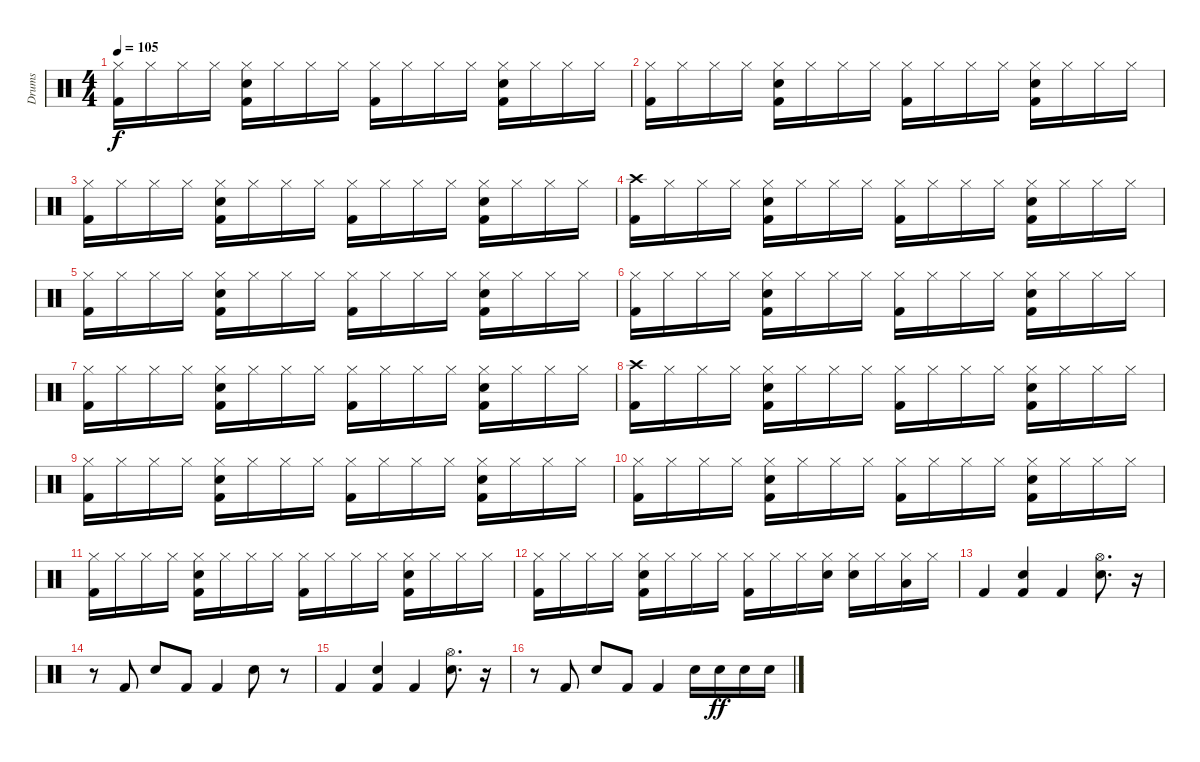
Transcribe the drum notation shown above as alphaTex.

\track ("Drums" "Drums") {instrument percussion}
\staff {score}
\articulation defaults
\ts (4 4)
\tempo 105
\clef neutral
\ks c
("Kick (hit) 2" "Hi-Hat (closed)").16{dy f} "Hi-Hat (closed)".16 "Hi-Hat (closed)".16 "Hi-Hat (closed)".16 ("Kick (hit) 2" "Snare (hit) 2" "Hi-Hat (closed)").16 "Hi-Hat (closed)".16 "Hi-Hat (closed)".16 "Hi-Hat (closed)".16 ("Kick (hit) 2" "Hi-Hat (closed)").16 "Hi-Hat (closed)".16 "Hi-Hat (closed)".16 "Hi-Hat (closed)".16 ("Kick (hit) 2" "Snare (hit) 2" "Hi-Hat (closed)").16 "Hi-Hat (closed)".16 "Hi-Hat (closed)".16 "Hi-Hat (closed)".16 |
("Kick (hit) 2" "Hi-Hat (closed)").16 "Hi-Hat (closed)".16 "Hi-Hat (closed)".16 "Hi-Hat (closed)".16 ("Kick (hit) 2" "Snare (hit) 2" "Hi-Hat (closed)").16 "Hi-Hat (closed)".16 "Hi-Hat (closed)".16 "Hi-Hat (closed)".16 ("Kick (hit) 2" "Hi-Hat (closed)").16 "Hi-Hat (closed)".16 "Hi-Hat (closed)".16 "Hi-Hat (closed)".16 ("Kick (hit) 2" "Snare (hit) 2" "Hi-Hat (closed)").16 "Hi-Hat (closed)".16 "Hi-Hat (closed)".16 "Hi-Hat (closed)".16 |
("Kick (hit) 2" "Hi-Hat (closed)").16 "Hi-Hat (closed)".16 "Hi-Hat (closed)".16 "Hi-Hat (closed)".16 ("Kick (hit) 2" "Snare (hit) 2" "Hi-Hat (closed)").16 "Hi-Hat (closed)".16 "Hi-Hat (closed)".16 "Hi-Hat (closed)".16 ("Kick (hit) 2" "Hi-Hat (closed)").16 "Hi-Hat (closed)".16 "Hi-Hat (closed)".16 "Hi-Hat (closed)".16 ("Kick (hit) 2" "Snare (hit) 2" "Hi-Hat (closed)").16 "Hi-Hat (closed)".16 "Hi-Hat (closed)".16 "Hi-Hat (closed)".16 |
("Kick (hit) 2" "Crash high (hit)").16 "Hi-Hat (closed)".16 "Hi-Hat (closed)".16 "Hi-Hat (closed)".16 ("Kick (hit) 2" "Snare (hit) 2" "Hi-Hat (closed)").16 "Hi-Hat (closed)".16 "Hi-Hat (closed)".16 "Hi-Hat (closed)".16 ("Kick (hit) 2" "Hi-Hat (closed)").16 "Hi-Hat (closed)".16 "Hi-Hat (closed)".16 "Hi-Hat (closed)".16 ("Kick (hit) 2" "Snare (hit) 2" "Hi-Hat (closed)").16 "Hi-Hat (closed)".16 "Hi-Hat (closed)".16 "Hi-Hat (closed)".16 |
("Kick (hit) 2" "Hi-Hat (closed)").16 "Hi-Hat (closed)".16 "Hi-Hat (closed)".16 "Hi-Hat (closed)".16 ("Kick (hit) 2" "Snare (hit) 2" "Hi-Hat (closed)").16 "Hi-Hat (closed)".16 "Hi-Hat (closed)".16 "Hi-Hat (closed)".16 ("Kick (hit) 2" "Hi-Hat (closed)").16 "Hi-Hat (closed)".16 "Hi-Hat (closed)".16 "Hi-Hat (closed)".16 ("Kick (hit) 2" "Snare (hit) 2" "Hi-Hat (closed)").16 "Hi-Hat (closed)".16 "Hi-Hat (closed)".16 "Hi-Hat (closed)".16 |
("Kick (hit) 2" "Hi-Hat (closed)").16 "Hi-Hat (closed)".16 "Hi-Hat (closed)".16 "Hi-Hat (closed)".16 ("Kick (hit) 2" "Snare (hit) 2" "Hi-Hat (closed)").16 "Hi-Hat (closed)".16 "Hi-Hat (closed)".16 "Hi-Hat (closed)".16 ("Kick (hit) 2" "Hi-Hat (closed)").16 "Hi-Hat (closed)".16 "Hi-Hat (closed)".16 "Hi-Hat (closed)".16 ("Kick (hit) 2" "Snare (hit) 2" "Hi-Hat (closed)").16 "Hi-Hat (closed)".16 "Hi-Hat (closed)".16 "Hi-Hat (closed)".16 |
("Kick (hit) 2" "Hi-Hat (closed)").16 "Hi-Hat (closed)".16 "Hi-Hat (closed)".16 "Hi-Hat (closed)".16 ("Kick (hit) 2" "Snare (hit) 2" "Hi-Hat (closed)").16 "Hi-Hat (closed)".16 "Hi-Hat (closed)".16 "Hi-Hat (closed)".16 ("Kick (hit) 2" "Hi-Hat (closed)").16 "Hi-Hat (closed)".16 "Hi-Hat (closed)".16 "Hi-Hat (closed)".16 ("Kick (hit) 2" "Snare (hit) 2" "Hi-Hat (closed)").16 "Hi-Hat (closed)".16 "Hi-Hat (closed)".16 "Hi-Hat (closed)".16 |
("Kick (hit) 2" "Crash high (hit)").16 "Hi-Hat (closed)".16 "Hi-Hat (closed)".16 "Hi-Hat (closed)".16 ("Kick (hit) 2" "Snare (hit) 2" "Hi-Hat (closed)").16 "Hi-Hat (closed)".16 "Hi-Hat (closed)".16 "Hi-Hat (closed)".16 ("Kick (hit) 2" "Hi-Hat (closed)").16 "Hi-Hat (closed)".16 "Hi-Hat (closed)".16 "Hi-Hat (closed)".16 ("Kick (hit) 2" "Snare (hit) 2" "Hi-Hat (closed)").16 "Hi-Hat (closed)".16 "Hi-Hat (closed)".16 "Hi-Hat (closed)".16 |
("Kick (hit) 2" "Hi-Hat (closed)").16 "Hi-Hat (closed)".16 "Hi-Hat (closed)".16 "Hi-Hat (closed)".16 ("Kick (hit) 2" "Snare (hit) 2" "Hi-Hat (closed)").16 "Hi-Hat (closed)".16 "Hi-Hat (closed)".16 "Hi-Hat (closed)".16 ("Kick (hit) 2" "Hi-Hat (closed)").16 "Hi-Hat (closed)".16 "Hi-Hat (closed)".16 "Hi-Hat (closed)".16 ("Kick (hit) 2" "Snare (hit) 2" "Hi-Hat (closed)").16 "Hi-Hat (closed)".16 "Hi-Hat (closed)".16 "Hi-Hat (closed)".16 |
("Kick (hit) 2" "Hi-Hat (closed)").16 "Hi-Hat (closed)".16 "Hi-Hat (closed)".16 "Hi-Hat (closed)".16 ("Kick (hit) 2" "Snare (hit) 2" "Hi-Hat (closed)").16 "Hi-Hat (closed)".16 "Hi-Hat (closed)".16 "Hi-Hat (closed)".16 ("Kick (hit) 2" "Hi-Hat (closed)").16 "Hi-Hat (closed)".16 "Hi-Hat (closed)".16 "Hi-Hat (closed)".16 ("Kick (hit) 2" "Snare (hit) 2" "Hi-Hat (closed)").16 "Hi-Hat (closed)".16 "Hi-Hat (closed)".16 "Hi-Hat (closed)".16 |
("Kick (hit) 2" "Hi-Hat (closed)").16 "Hi-Hat (closed)".16 "Hi-Hat (closed)".16 "Hi-Hat (closed)".16 ("Kick (hit) 2" "Snare (hit) 2" "Hi-Hat (closed)").16 "Hi-Hat (closed)".16 "Hi-Hat (closed)".16 "Hi-Hat (closed)".16 ("Kick (hit) 2" "Hi-Hat (closed)").16 "Hi-Hat (closed)".16 "Hi-Hat (closed)".16 "Hi-Hat (closed)".16 ("Kick (hit) 2" "Snare (hit) 2" "Hi-Hat (closed)").16 "Hi-Hat (closed)".16 "Hi-Hat (closed)".16 "Hi-Hat (closed)".16 |
("Kick (hit) 2" "Hi-Hat (closed)").16 "Hi-Hat (closed)".16 "Hi-Hat (closed)".16 "Hi-Hat (closed)".16 ("Kick (hit) 2" "Snare (hit) 2" "Hi-Hat (closed)").16 "Hi-Hat (closed)".16 "Hi-Hat (closed)".16 "Hi-Hat (closed)".16 ("Kick (hit) 2" "Hi-Hat (closed)").16 "Hi-Hat (closed)".16 "Hi-Hat (closed)".16 ("Hi-Hat (closed)" "Snare (hit) 2").16 ("Snare (hit) 2" "Hi-Hat (closed)").16 "Hi-Hat (closed)".16 ("Hi-Hat (closed)" "Low Tom (hit)").16 "Hi-Hat (closed)".16 |
"Kick (hit) 2".4 ("Snare (hit) 2" "Kick (hit) 2").4 "Kick (hit) 2".4 ("Snare (hit) 2" "Hi-Hat (open)").8{d} r.16 |
r.8 "Kick (hit) 2".8 "Snare (hit) 2".8 "Kick (hit) 2".8 "Kick (hit) 2".4 "Snare (hit) 2".8 r.8 |
"Kick (hit) 2".4 ("Snare (hit) 2" "Kick (hit) 2").4 "Kick (hit) 2".4 ("Snare (hit) 2" "Hi-Hat (open)").8{d} r.16 |
r.8 "Kick (hit) 2".8 "Snare (hit) 2".8 "Kick (hit) 2".8 "Kick (hit) 2".4 "Snare (hit) 2".16 "Snare (hit) 2".16{dy ff} "Snare (hit) 2".16 "Snare (hit) 2".16
